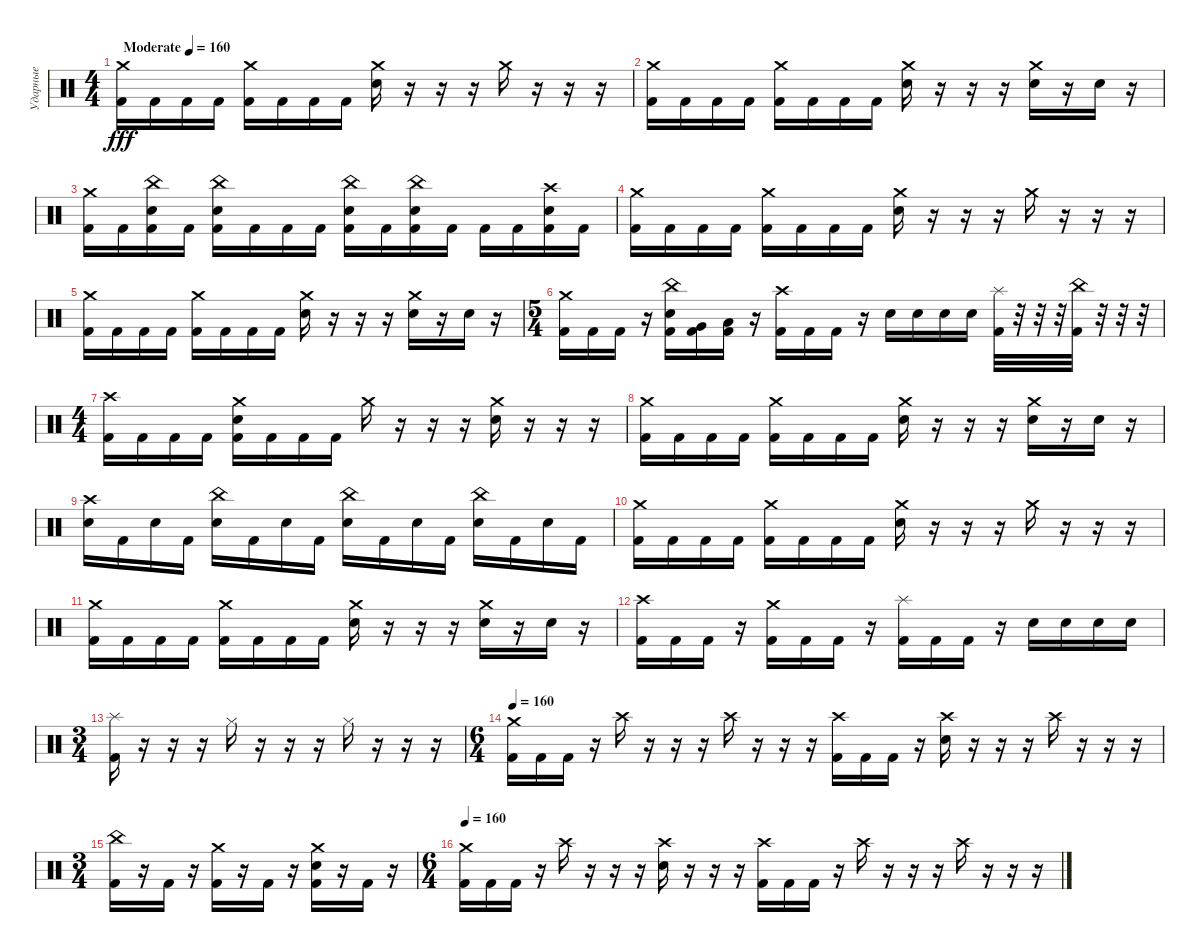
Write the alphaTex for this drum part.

\track ("Ударные" "Ударные") {instrument percussion}
\staff {score}
\articulation defaults
\ts (4 4)
\tempo (160 "Moderate")
\clef neutral
\ks c
("Crash medium (hit)" "Kick (hit) 2").16{dy fff} "Kick (hit) 2".16 "Kick (hit) 2".16 "Kick (hit) 2".16 ("Crash medium (hit)" "Kick (hit) 2").16 "Kick (hit) 2".16 "Kick (hit) 2".16 "Kick (hit) 2".16 ("Crash medium (hit)" "Snare (hit) 2").16 r.16 r.16 r.16 "Crash medium (hit)".16 r.16 r.16 r.16 |
("Crash medium (hit)" "Kick (hit) 2").16 "Kick (hit) 2".16 "Kick (hit) 2".16 "Kick (hit) 2".16 ("Crash medium (hit)" "Kick (hit) 2").16 "Kick (hit) 2".16 "Kick (hit) 2".16 "Kick (hit) 2".16 ("Crash medium (hit)" "Snare (hit) 2").16 r.16 r.16 r.16 ("Crash medium (hit)" "Snare (hit) 2").16 r.16 "Snare (hit) 2".16 r.16 |
("Crash medium (hit)" "Kick (hit) 2").16 "Kick (hit) 2".16 ("China (hit)" "Snare (hit) 2" "Kick (hit) 2").16 "Kick (hit) 2".16 ("China (hit)" "Snare (hit) 2" "Kick (hit) 2").16 "Kick (hit) 2".16 "Kick (hit) 2".16 "Kick (hit) 2".16 ("China (hit)" "Snare (hit) 2" "Kick (hit) 2").16 "Kick (hit) 2".16 ("China (hit)" "Snare (hit) 2" "Kick (hit) 2").16 "Kick (hit) 2".16 "Kick (hit) 2".16 "Kick (hit) 2".16 ("Crash high (hit)" "Snare (hit) 2" "Kick (hit) 2").16 "Kick (hit) 2".16 |
("Crash medium (hit)" "Kick (hit) 2").16 "Kick (hit) 2".16 "Kick (hit) 2".16 "Kick (hit) 2".16 ("Crash medium (hit)" "Kick (hit) 2").16 "Kick (hit) 2".16 "Kick (hit) 2".16 "Kick (hit) 2".16 ("Crash medium (hit)" "Snare (hit) 2").16 r.16 r.16 r.16 "Crash medium (hit)".16 r.16 r.16 r.16 |
("Crash medium (hit)" "Kick (hit) 2").16 "Kick (hit) 2".16 "Kick (hit) 2".16 "Kick (hit) 2".16 ("Crash medium (hit)" "Kick (hit) 2").16 "Kick (hit) 2".16 "Kick (hit) 2".16 "Kick (hit) 2".16 ("Crash medium (hit)" "Snare (hit) 2").16 r.16 r.16 r.16 ("Crash medium (hit)" "Snare (hit) 2").16 r.16 "Snare (hit) 2".16 r.16 |
\ts (5 4)
("Crash medium (hit)" "Kick (hit) 2").16 "Kick (hit) 2".16 "Kick (hit) 2".16 r.16 ("China (hit)" "Snare (hit) 2" "Kick (hit) 2").16 ("Very Low Tom (hit)" "Kick (hit) 2").16 ("Low Floor Tom (hit)" "Kick (hit) 2").16 r.16 ("Crash high (hit)" "Kick (hit) 2").16 "Kick (hit) 2".16 "Kick (hit) 2".16 r.16 "Snare (hit) 2".16 "Snare (hit) 2".16 "Snare (hit) 2".16 "Snare (hit) 2".16 ("Splash (hit)" "Kick (hit) 2").32 r.32 r.32 r.32 ("China (hit)" "Kick (hit) 2").32 r.32 r.32 r.32 |
\ts (4 4)
("Crash high (hit)" "Kick (hit) 2").16 "Kick (hit) 2".16 "Kick (hit) 2".16 "Kick (hit) 2".16 ("Crash medium (hit)" "Snare (hit) 2" "Kick (hit) 2").16 "Kick (hit) 2".16 "Kick (hit) 2".16 "Kick (hit) 2".16 "Crash medium (hit)".16 r.16 r.16 r.16 ("Crash medium (hit)" "Snare (hit) 2").16 r.16 r.16 r.16 |
("Crash medium (hit)" "Kick (hit) 2").16 "Kick (hit) 2".16 "Kick (hit) 2".16 "Kick (hit) 2".16 ("Crash medium (hit)" "Kick (hit) 2").16 "Kick (hit) 2".16 "Kick (hit) 2".16 "Kick (hit) 2".16 ("Crash medium (hit)" "Snare (hit) 2").16 r.16 r.16 r.16 ("Crash medium (hit)" "Snare (hit) 2").16 r.16 "Snare (hit) 2".16 r.16 |
("Crash high (hit)" "Snare (hit) 2").16 "Kick (hit) 2".16 "Snare (hit) 2".16 "Kick (hit) 2".16 ("China (hit)" "Snare (hit) 2").16 "Kick (hit) 2".16 "Snare (hit) 2".16 "Kick (hit) 2".16 ("China (hit)" "Snare (hit) 2").16 "Kick (hit) 2".16 "Snare (hit) 2".16 "Kick (hit) 2".16 ("China (hit)" "Snare (hit) 2").16 "Kick (hit) 2".16 "Snare (hit) 2".16 "Kick (hit) 2".16 |
("Crash medium (hit)" "Kick (hit) 2").16 "Kick (hit) 2".16 "Kick (hit) 2".16 "Kick (hit) 2".16 ("Crash medium (hit)" "Kick (hit) 2").16 "Kick (hit) 2".16 "Kick (hit) 2".16 "Kick (hit) 2".16 ("Crash medium (hit)" "Snare (hit) 2").16 r.16 r.16 r.16 "Crash medium (hit)".16 r.16 r.16 r.16 |
("Crash medium (hit)" "Kick (hit) 2").16 "Kick (hit) 2".16 "Kick (hit) 2".16 "Kick (hit) 2".16 ("Crash medium (hit)" "Kick (hit) 2").16 "Kick (hit) 2".16 "Kick (hit) 2".16 "Kick (hit) 2".16 ("Crash medium (hit)" "Snare (hit) 2").16 r.16 r.16 r.16 ("Crash medium (hit)" "Snare (hit) 2").16 r.16 "Snare (hit) 2".16 r.16 |
("Crash high (hit)" "Kick (hit) 2").16 "Kick (hit) 2".16 "Kick (hit) 2".16 r.16 ("Crash medium (hit)" "Kick (hit) 2").16 "Kick (hit) 2".16 "Kick (hit) 2".16 r.16 ("Splash (hit)" "Kick (hit) 2").16 "Kick (hit) 2".16 "Kick (hit) 2".16 r.16 "Snare (hit) 2".16 "Snare (hit) 2".16 "Snare (hit) 2".16 "Snare (hit) 2".16 |
\ts (3 4)
("Splash (hit)" "Kick (hit) 2").16 r.16 r.16 r.16 "Hi-Hat (closed)".16 r.16 r.16 r.16 "Hi-Hat (closed)".16 r.16 r.16 r.16 |
\ts (6 4)
\tempo 160
("Crash medium (hit)" "Kick (hit) 2").16 "Kick (hit) 2".16 "Kick (hit) 2".16 r.16 "Crash high (hit)".16 r.16 r.16 r.16 "Crash high (hit)".16 r.16 r.16 r.16 ("Crash high (hit)" "Kick (hit) 2").16 "Kick (hit) 2".16 "Kick (hit) 2".16 r.16 ("Crash high (hit)" "Snare (hit) 2").16 r.16 r.16 r.16 "Crash high (hit)".16 r.16 r.16 r.16 |
\ts (3 4)
("China (hit)" "Kick (hit) 2").16 r.16 "Kick (hit) 2".16 r.16 ("Crash medium (hit)" "Kick (hit) 2").16 r.16 "Kick (hit) 2".16 r.16 ("Crash medium (hit)" "Snare (hit) 2" "Kick (hit) 2").16 r.16 "Kick (hit) 2".16 r.16 |
\ts (6 4)
\tempo 160
("Crash medium (hit)" "Kick (hit) 2").16 "Kick (hit) 2".16 "Kick (hit) 2".16 r.16 "Crash high (hit)".16 r.16 r.16 r.16 ("Crash high (hit)" "Snare (hit) 2").16 r.16 r.16 r.16 ("Crash high (hit)" "Kick (hit) 2").16 "Kick (hit) 2".16 "Kick (hit) 2".16 r.16 "Crash high (hit)".16 r.16 r.16 r.16 "Crash high (hit)".16 r.16 r.16 r.16
